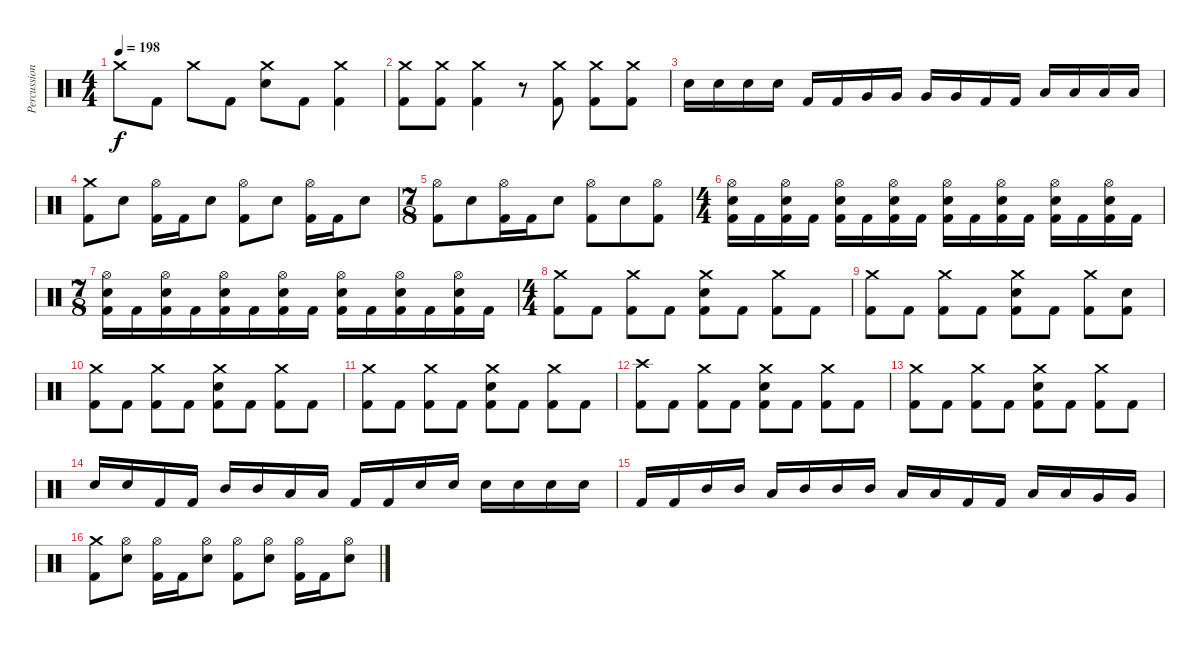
\track ("Percussion" "Percussion") {instrument percussion}
\staff {score}
\articulation defaults
\ts (4 4)
\tempo 198
\clef neutral
\ks c "Crash medium (hit)".8{dy f} "Kick (hit) 2".8 "Crash medium (hit)".8 "Kick (hit) 2".8
("Crash medium (hit)" "Electric Snare (hit)").8 "Kick (hit) 2".8 ("Crash medium (hit)" "Kick (hit) 2").4 |
("Crash medium (hit)" "Kick (hit) 2").8 ("Crash medium (hit)" "Kick (hit) 2").8 ("Crash medium (hit)" "Kick (hit) 2").4 r.8 ("Crash medium (hit)" "Kick (hit) 2").8 ("Crash medium (hit)" "Kick (hit) 2").8 ("Crash medium (hit)" "Kick (hit) 2").8 |
"Electric Snare (hit)".16 "Electric Snare (hit)".16 "Electric Snare (hit)".16 "Electric Snare (hit)".16 "Kick (hit) 2".16 "Kick (hit) 2".16 "Very Low Tom (hit)".16 "Very Low Tom (hit)".16 "Very Low Tom (hit)".16 "Very Low Tom (hit)".16 "Kick (hit) 2".16 "Kick (hit) 2".16 "Low Floor Tom (hit)".16 "Low Floor Tom (hit)".16 "Low Floor Tom (hit)".16 "Low Floor Tom (hit)".16 |
("Crash medium (hit)" "Kick (hit) 2").8 "Electric Snare (hit)".8 ("Hi-Hat (open)" "Kick (hit) 2").16 "Kick (hit) 2".16 "Electric Snare (hit)".8 ("Hi-Hat (open)" "Kick (hit) 2").8 "Electric Snare (hit)".8 ("Hi-Hat (open)" "Kick (hit) 2").16 "Kick (hit) 2".16 "Electric Snare (hit)".8 |
\ts (7 8)
("Hi-Hat (open)" "Kick (hit) 2").8 "Electric Snare (hit)".8 ("Hi-Hat (open)" "Kick (hit) 2").16 "Kick (hit) 2".16 "Electric Snare (hit)".8 ("Hi-Hat (open)" "Kick (hit) 2").8 "Electric Snare (hit)".8 ("Hi-Hat (open)" "Kick (hit) 2").8 |
\ts (4 4)
("Hi-Hat (open)" "Electric Snare (hit)" "Kick (hit) 2").16 "Kick (hit) 2".16 ("Hi-Hat (open)" "Electric Snare (hit)" "Kick (hit) 2").16 "Kick (hit) 2".16 ("Hi-Hat (open)" "Electric Snare (hit)" "Kick (hit) 2").16 "Kick (hit) 2".16 ("Hi-Hat (open)" "Electric Snare (hit)" "Kick (hit) 2").16 "Kick (hit) 2".16 ("Hi-Hat (open)" "Electric Snare (hit)" "Kick (hit) 2").16 "Kick (hit) 2".16 ("Hi-Hat (open)" "Electric Snare (hit)" "Kick (hit) 2").16 "Kick (hit) 2".16 ("Hi-Hat (open)" "Electric Snare (hit)" "Kick (hit) 2").16 "Kick (hit) 2".16 ("Hi-Hat (open)" "Electric Snare (hit)" "Kick (hit) 2").16 "Kick (hit) 2".16 |
\ts (7 8)
("Hi-Hat (open)" "Electric Snare (hit)" "Kick (hit) 2").16 "Kick (hit) 2".16 ("Hi-Hat (open)" "Electric Snare (hit)" "Kick (hit) 2").16 "Kick (hit) 2".16 ("Hi-Hat (open)" "Electric Snare (hit)" "Kick (hit) 2").16 "Kick (hit) 2".16 ("Hi-Hat (open)" "Electric Snare (hit)" "Kick (hit) 2").16 "Kick (hit) 2".16 ("Hi-Hat (open)" "Electric Snare (hit)" "Kick (hit) 2").16 "Kick (hit) 2".16 ("Hi-Hat (open)" "Electric Snare (hit)" "Kick (hit) 2").16 "Kick (hit) 2".16 ("Hi-Hat (open)" "Electric Snare (hit)" "Kick (hit) 2").16 "Kick (hit) 2".16 |
\ts (4 4)
("Crash medium (hit)" "Kick (hit) 2").8 "Kick (hit) 2".8 ("Crash medium (hit)" "Kick (hit) 2").8 "Kick (hit) 2".8 ("Crash medium (hit)" "Electric Snare (hit)" "Kick (hit) 2").8 "Kick (hit) 2".8 ("Crash medium (hit)" "Kick (hit) 2").8 "Kick (hit) 2".8 |
("Crash medium (hit)" "Kick (hit) 2").8 "Kick (hit) 2".8 ("Crash medium (hit)" "Kick (hit) 2").8 "Kick (hit) 2".8 ("Crash medium (hit)" "Electric Snare (hit)" "Kick (hit) 2").8 "Kick (hit) 2".8 ("Crash medium (hit)" "Kick (hit) 2").8 ("Electric Snare (hit)" "Kick (hit) 2").8 |
("Crash medium (hit)" "Kick (hit) 2").8 "Kick (hit) 2".8 ("Crash medium (hit)" "Kick (hit) 2").8 "Kick (hit) 2".8 ("Crash medium (hit)" "Electric Snare (hit)" "Kick (hit) 2").8 "Kick (hit) 2".8 ("Crash medium (hit)" "Kick (hit) 2").8 "Kick (hit) 2".8 |
("Crash medium (hit)" "Kick (hit) 2").8 "Kick (hit) 2".8 ("Crash medium (hit)" "Kick (hit) 2").8 "Kick (hit) 2".8 ("Crash medium (hit)" "Electric Snare (hit)" "Kick (hit) 2").8 "Kick (hit) 2".8 ("Crash medium (hit)" "Kick (hit) 2").8 "Kick (hit) 2".8 |
("Crash high (hit)" "Kick (hit) 2").8 "Kick (hit) 2".8 ("Crash medium (hit)" "Kick (hit) 2").8 "Kick (hit) 2".8 ("Crash medium (hit)" "Electric Snare (hit)" "Kick (hit) 2").8 "Kick (hit) 2".8 ("Crash medium (hit)" "Kick (hit) 2").8 "Kick (hit) 2".8 |
("Crash medium (hit)" "Kick (hit) 2").8 "Kick (hit) 2".8 ("Crash medium (hit)" "Kick (hit) 2").8 "Kick (hit) 2".8 ("Crash medium (hit)" "Electric Snare (hit)" "Kick (hit) 2").8 "Kick (hit) 2".8 ("Crash medium (hit)" "Kick (hit) 2").8 "Kick (hit) 2".8 |
"Electric Snare (hit)".16 "Electric Snare (hit)".16 "Kick (hit) 2".16 "Kick (hit) 2".16 "Mid Tom (hit)".16 "Mid Tom (hit)".16 "Low Tom (hit)".16 "Low Tom (hit)".16 "Kick (hit) 2".16 "Kick (hit) 2".16 "Electric Snare (hit)".16 "Electric Snare (hit)".16 "Electric Snare (hit)".16 "Electric Snare (hit)".16 "Electric Snare (hit)".16 "Electric Snare (hit)".16 |
"Kick (hit) 2".16 "Kick (hit) 2".16 "Mid Tom (hit)".16 "Mid Tom (hit)".16 "Low Tom (hit)".16 "Mid Tom (hit)".16 "Mid Tom (hit)".16 "Mid Tom (hit)".16 "Low Tom (hit)".16 "Low Tom (hit)".16 "Kick (hit) 2".16 "Kick (hit) 2".16 "Low Tom (hit)".16 "Low Tom (hit)".16 "Very Low Tom (hit)".16 "Very Low Tom (hit)".16 |
("Crash medium (hit)" "Kick (hit) 2").8 ("Hi-Hat (open)" "Electric Snare (hit)").8 ("Hi-Hat (open)" "Kick (hit) 2").16 "Kick (hit) 2".16 ("Hi-Hat (open)" "Electric Snare (hit)").8 ("Hi-Hat (open)" "Kick (hit) 2").8 ("Hi-Hat (open)" "Electric Snare (hit)").8 ("Hi-Hat (open)" "Kick (hit) 2").16 "Kick (hit) 2".16 ("Hi-Hat (open)" "Electric Snare (hit)").8
